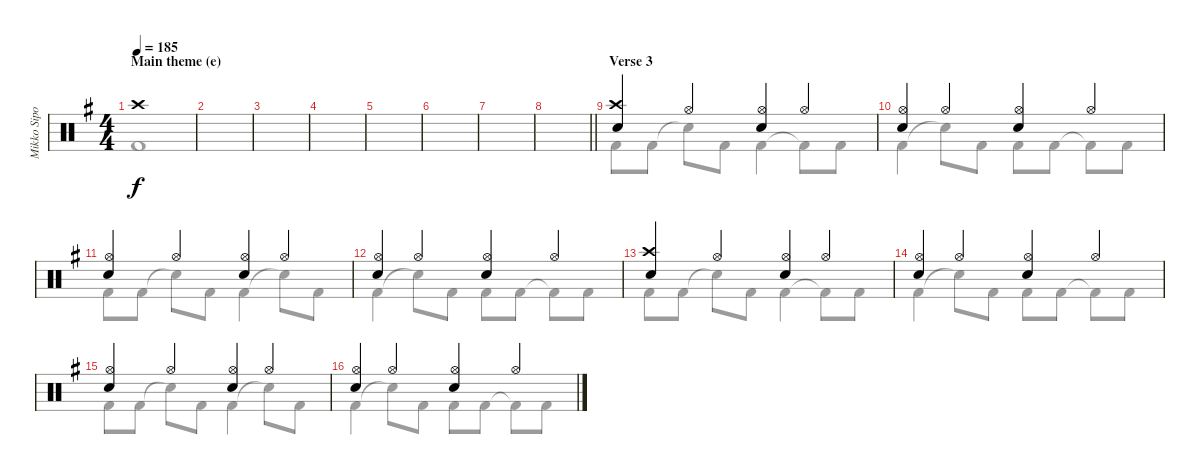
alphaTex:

\track ("Mikko Sipola (drums)" "Mikko Sipo") {instrument percussion}
\staff {score}
\articulation defaults
\voice
\ts (4 4)
\section ("" "Main theme (e)")
\tempo 185
\clef neutral
\ks eminor "Crash high (hit)".1{dy f}
|
|
|
|
|
|
|
\barLineRight lightlight
|
\section ("" "Verse 3")
("Crash high (hit)" "Electric Snare (hit)").4 "Hi-Hat (open)".4 ("Hi-Hat (open)" "Electric Snare (hit)").4 "Hi-Hat (open)".4 |
("Hi-Hat (open)" "Electric Snare (hit)").4 "Hi-Hat (open)".4 ("Hi-Hat (open)" "Electric Snare (hit)").4 "Hi-Hat (open)".4 |
("Hi-Hat (open)" "Electric Snare (hit)").4 "Hi-Hat (open)".4 ("Hi-Hat (open)" "Electric Snare (hit)").4 "Hi-Hat (open)".4 |
("Hi-Hat (open)" "Electric Snare (hit)").4 "Hi-Hat (open)".4 ("Hi-Hat (open)" "Electric Snare (hit)").4 "Hi-Hat (open)".4 |
("Crash high (hit)" "Electric Snare (hit)").4 "Hi-Hat (open)".4 ("Hi-Hat (open)" "Electric Snare (hit)").4 "Hi-Hat (open)".4 |
("Hi-Hat (open)" "Electric Snare (hit)").4 "Hi-Hat (open)".4 ("Hi-Hat (open)" "Electric Snare (hit)").4 "Hi-Hat (open)".4 |
("Hi-Hat (open)" "Electric Snare (hit)").4 "Hi-Hat (open)".4 ("Hi-Hat (open)" "Electric Snare (hit)").4 "Hi-Hat (open)".4 |
("Hi-Hat (open)" "Electric Snare (hit)").4 "Hi-Hat (open)".4 ("Hi-Hat (open)" "Electric Snare (hit)").4 "Hi-Hat (open)".4
\voice
\clef neutral
\ottava regular
\simile none
\ks eminor "Kick (hit) 2".1{dy f}
|
|
|
|
|
|
|
\barLineRight lightlight
|
"Kick (hit) 2".8 "Kick (hit) 2".8 "Snare (hit)"{t}.8 "Kick (hit) 2".8 "Kick (hit) 2".4 "Kick (hit) 2"{t}.8 "Kick (hit) 2".8 |
"Kick (hit) 2".4 "Snare (hit)"{t}.8 "Kick (hit) 2".8 "Kick (hit) 2".8 "Kick (hit) 2".8 "Kick (hit) 2"{t}.8 "Kick (hit) 2".8 |
"Kick (hit) 2".8 "Kick (hit) 2".8 "Snare (hit)"{t}.8 "Kick (hit) 2".8 "Kick (hit) 2".4 "Snare (hit)"{t}.8 "Kick (hit) 2".8 |
"Kick (hit) 2".4 "Snare (hit)"{t}.8 "Kick (hit) 2".8 "Kick (hit) 2".8 "Kick (hit) 2".8 "Kick (hit) 2"{t}.8 "Kick (hit) 2".8 |
"Kick (hit) 2".8 "Kick (hit) 2".8 "Snare (hit)"{t}.8 "Kick (hit) 2".8 "Kick (hit) 2".4 "Kick (hit) 2"{t}.8 "Kick (hit) 2".8 |
"Kick (hit) 2".4 "Snare (hit)"{t}.8 "Kick (hit) 2".8 "Kick (hit) 2".8 "Kick (hit) 2".8 "Kick (hit) 2"{t}.8 "Kick (hit) 2".8 |
"Kick (hit) 2".8 "Kick (hit) 2".8 "Snare (hit)"{t}.8 "Kick (hit) 2".8 "Kick (hit) 2".4 "Snare (hit)"{t}.8 "Kick (hit) 2".8 |
"Kick (hit) 2".4 "Snare (hit)"{t}.8 "Kick (hit) 2".8 "Kick (hit) 2".8 "Kick (hit) 2".8 "Kick (hit) 2"{t}.8 "Kick (hit) 2".8
